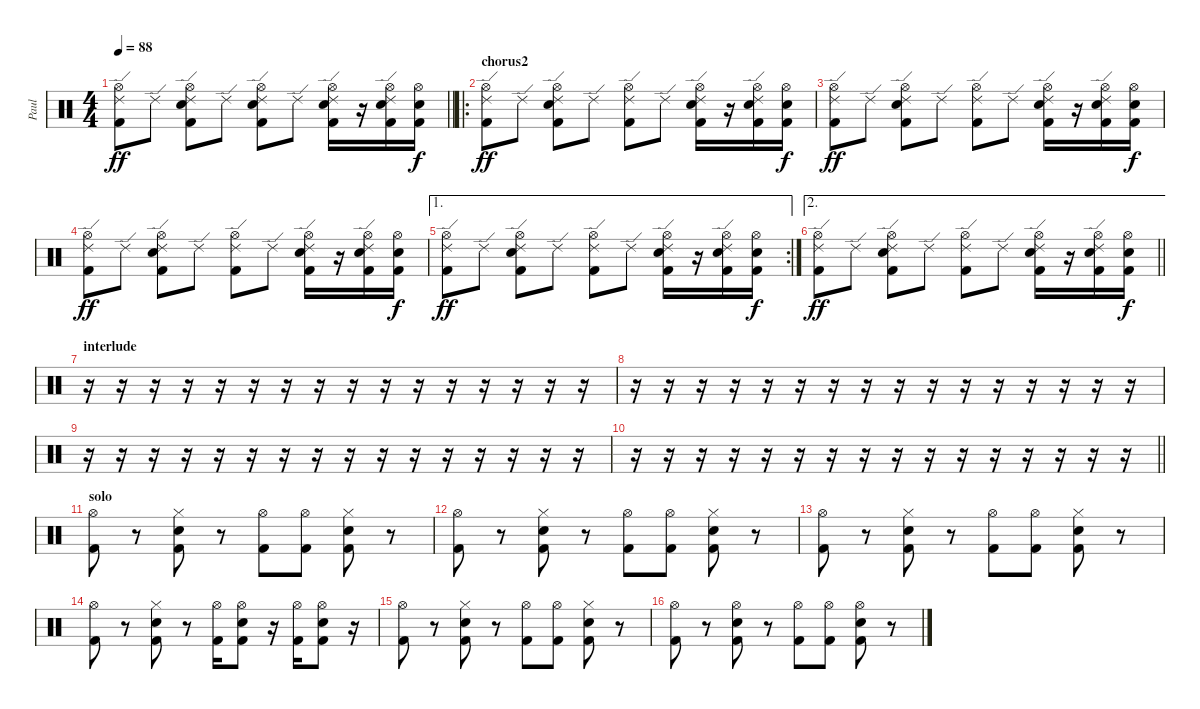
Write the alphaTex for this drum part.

\track ("Paul" "Paul") {instrument percussion}
\staff {score}
\articulation defaults
\ts (4 4)
\tempo 88
\clef neutral
\barLineRight lightlight
\ks c
("Hi-Hat (open)" "Ride (edge) 2" "Kick (hit) 2").8{dy ff} "Ride (edge) 2".8 ("Snare (hit) 2" "Hi-Hat (open)" "Ride (edge) 2" "Kick (hit) 2").8 "Ride (edge) 2".8 ("Snare (hit) 2" "Hi-Hat (open)" "Ride (edge) 2" "Kick (hit) 2").8 "Ride (edge) 2".8 ("Snare (hit) 2" "Hi-Hat (open)" "Ride (edge) 2" "Kick (hit) 2").16 r.16 ("Snare (hit) 2" "Hi-Hat (open)" "Ride (edge) 2" "Kick (hit) 2").16 ("Snare (hit) 2" "Hi-Hat (open)" "Kick (hit) 2").16{dy f} |
\ro
\section ("" "chorus2")
("Hi-Hat (open)" "Ride (edge) 2" "Kick (hit) 2").8{dy ff} "Ride (edge) 2".8 ("Snare (hit) 2" "Hi-Hat (open)" "Ride (edge) 2" "Kick (hit) 2").8 "Ride (edge) 2".8 ("Hi-Hat (open)" "Ride (edge) 2" "Kick (hit) 2").8 "Ride (edge) 2".8 ("Snare (hit) 2" "Hi-Hat (open)" "Ride (edge) 2" "Kick (hit) 2").16 r.16 ("Snare (hit) 2" "Hi-Hat (open)" "Ride (edge) 2" "Kick (hit) 2").16 ("Snare (hit) 2" "Hi-Hat (open)" "Kick (hit) 2").16{dy f} |
("Hi-Hat (open)" "Ride (edge) 2" "Kick (hit) 2").8{dy ff} "Ride (edge) 2".8 ("Snare (hit) 2" "Hi-Hat (open)" "Ride (edge) 2" "Kick (hit) 2").8 "Ride (edge) 2".8 ("Hi-Hat (open)" "Ride (edge) 2" "Kick (hit) 2").8 "Ride (edge) 2".8 ("Snare (hit) 2" "Hi-Hat (open)" "Ride (edge) 2" "Kick (hit) 2").16 r.16 ("Snare (hit) 2" "Hi-Hat (open)" "Ride (edge) 2" "Kick (hit) 2").16 ("Snare (hit) 2" "Hi-Hat (open)" "Kick (hit) 2").16{dy f} |
("Hi-Hat (open)" "Ride (edge) 2" "Kick (hit) 2").8{dy ff} "Ride (edge) 2".8 ("Snare (hit) 2" "Hi-Hat (open)" "Ride (edge) 2" "Kick (hit) 2").8 "Ride (edge) 2".8 ("Hi-Hat (open)" "Ride (edge) 2" "Kick (hit) 2").8 "Ride (edge) 2".8 ("Snare (hit) 2" "Hi-Hat (open)" "Ride (edge) 2" "Kick (hit) 2").16 r.16 ("Snare (hit) 2" "Hi-Hat (open)" "Ride (edge) 2" "Kick (hit) 2").16 ("Snare (hit) 2" "Hi-Hat (open)" "Kick (hit) 2").16{dy f} |
\ae 1
\rc 2
("Hi-Hat (open)" "Ride (edge) 2" "Kick (hit) 2").8{dy ff} "Ride (edge) 2".8 ("Snare (hit) 2" "Hi-Hat (open)" "Ride (edge) 2" "Kick (hit) 2").8 "Ride (edge) 2".8 ("Hi-Hat (open)" "Ride (edge) 2" "Kick (hit) 2").8 "Ride (edge) 2".8 ("Snare (hit) 2" "Hi-Hat (open)" "Ride (edge) 2" "Kick (hit) 2").16 r.16 ("Snare (hit) 2" "Hi-Hat (open)" "Ride (edge) 2" "Kick (hit) 2").16 ("Snare (hit) 2" "Hi-Hat (open)" "Kick (hit) 2").16{dy f} |
\ae 2
\barLineRight lightlight
("Hi-Hat (open)" "Ride (edge) 2" "Kick (hit) 2").8{dy ff} "Ride (edge) 2".8 ("Snare (hit) 2" "Hi-Hat (open)" "Ride (edge) 2" "Kick (hit) 2").8 "Ride (edge) 2".8 ("Hi-Hat (open)" "Ride (edge) 2" "Kick (hit) 2").8 "Ride (edge) 2".8 ("Snare (hit) 2" "Hi-Hat (open)" "Ride (edge) 2" "Kick (hit) 2").16 r.16 ("Snare (hit) 2" "Hi-Hat (open)" "Ride (edge) 2" "Kick (hit) 2").16 ("Snare (hit) 2" "Hi-Hat (open)" "Kick (hit) 2").16{dy f} |
\section ("" "interlude")
r.16 r.16 r.16 r.16 r.16 r.16 r.16 r.16 r.16 r.16 r.16 r.16 r.16 r.16 r.16 r.16 |
r.16 r.16 r.16 r.16 r.16 r.16 r.16 r.16 r.16 r.16 r.16 r.16 r.16 r.16 r.16 r.16 |
r.16 r.16 r.16 r.16 r.16 r.16 r.16 r.16 r.16 r.16 r.16 r.16 r.16 r.16 r.16 r.16 |
\barLineRight lightlight
r.16 r.16 r.16 r.16 r.16 r.16 r.16 r.16 r.16 r.16 r.16 r.16 r.16 r.16 r.16 r.16 |
\section ("" "solo")
("Hi-Hat (open)" "Kick (hit) 2").8 r.8 ("Snare (hit) 2" "Hi-Hat (closed)" "Kick (hit) 2").8 r.8 ("Hi-Hat (open)" "Kick (hit) 2").8 ("Hi-Hat (open)" "Kick (hit) 2").8 ("Snare (hit) 2" "Hi-Hat (closed)" "Kick (hit) 2").8 r.8 |
("Hi-Hat (open)" "Kick (hit) 2").8 r.8 ("Snare (hit) 2" "Hi-Hat (closed)" "Kick (hit) 2").8 r.8 ("Hi-Hat (open)" "Kick (hit) 2").8 ("Hi-Hat (open)" "Kick (hit) 2").8 ("Snare (hit) 2" "Hi-Hat (closed)" "Kick (hit) 2").8 r.8 |
("Hi-Hat (open)" "Kick (hit) 2").8 r.8 ("Snare (hit) 2" "Hi-Hat (closed)" "Kick (hit) 2").8 r.8 ("Hi-Hat (open)" "Kick (hit) 2").8 ("Hi-Hat (open)" "Kick (hit) 2").8 ("Snare (hit) 2" "Hi-Hat (closed)" "Kick (hit) 2").8 r.8 |
("Hi-Hat (open)" "Kick (hit) 2").8 r.8 ("Snare (hit) 2" "Hi-Hat (closed)" "Kick (hit) 2").8 r.8 ("Hi-Hat (open)" "Kick (hit) 2").16 ("Snare (hit) 2" "Hi-Hat (open)" "Kick (hit) 2").8 r.16 ("Hi-Hat (open)" "Kick (hit) 2").16 ("Snare (hit) 2" "Hi-Hat (open)" "Kick (hit) 2").8 r.16 |
("Hi-Hat (open)" "Kick (hit) 2").8 r.8 ("Snare (hit) 2" "Hi-Hat (closed)" "Kick (hit) 2").8 r.8 ("Hi-Hat (open)" "Kick (hit) 2").8 ("Hi-Hat (open)" "Kick (hit) 2").8 ("Snare (hit) 2" "Hi-Hat (closed)" "Kick (hit) 2").8 r.8 |
("Hi-Hat (open)" "Kick (hit) 2").8 r.8 ("Snare (hit) 2" "Hi-Hat (open)" "Kick (hit) 2").8 r.8 ("Hi-Hat (open)" "Kick (hit) 2").8 ("Hi-Hat (open)" "Kick (hit) 2").8 ("Snare (hit) 2" "Hi-Hat (open)" "Kick (hit) 2").8 r.8
